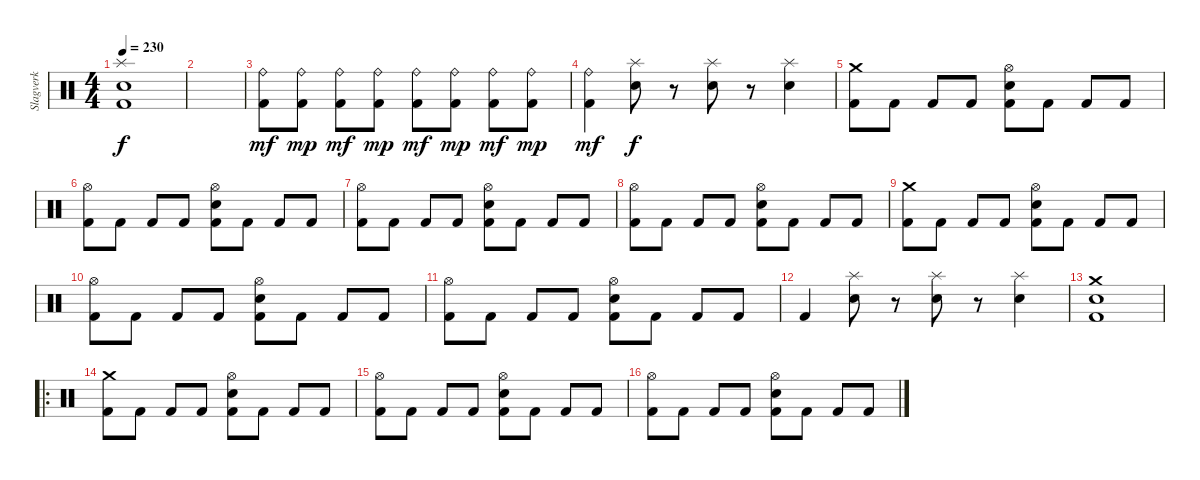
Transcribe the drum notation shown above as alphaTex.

\track ("Slagverk" "Slagverk") {instrument percussion}
\staff {score}
\articulation defaults
\ts (4 4)
\tempo 230
\clef neutral
\ks c
("Snare (hit) 2" "Kick (hit) 2" "Splash (hit)").1{dy f} |
|
("Ride (bell)" "Kick (hit) 2").8{dy mf} ("Ride (bell)" "Kick (hit) 2").8{dy mp} ("Ride (bell)" "Kick (hit) 2").8{dy mf} ("Ride (bell)" "Kick (hit) 2").8{dy mp} ("Ride (bell)" "Kick (hit) 2").8{dy mf} ("Ride (bell)" "Kick (hit) 2").8{dy mp} ("Ride (bell)" "Kick (hit) 2").8{dy mf} ("Ride (bell)" "Kick (hit) 2").8{dy mp} |
("Ride (bell)" "Kick (hit) 2").4{dy mf} ("Snare (hit) 2" "Splash (hit)").8{dy f} r.8 ("Snare (hit) 2" "Splash (hit)").8 r.8 ("Snare (hit) 2" "Splash (hit)").4 |
("Crash medium (hit)" "Kick (hit) 2").8 "Kick (hit) 2".8 "Kick (hit) 2".8 "Kick (hit) 2".8 ("Hi-Hat (open)" "Kick (hit) 2" "Snare (hit) 2").8 "Kick (hit) 2".8 "Kick (hit) 2".8 "Kick (hit) 2".8 |
("Kick (hit) 2" "Hi-Hat (open)").8 "Kick (hit) 2".8 "Kick (hit) 2".8 "Kick (hit) 2".8 ("Hi-Hat (open)" "Kick (hit) 2" "Snare (hit) 2").8 "Kick (hit) 2".8 "Kick (hit) 2".8 "Kick (hit) 2".8 |
("Kick (hit) 2" "Hi-Hat (open)").8 "Kick (hit) 2".8 "Kick (hit) 2".8 "Kick (hit) 2".8 ("Hi-Hat (open)" "Kick (hit) 2" "Snare (hit) 2").8 "Kick (hit) 2".8 "Kick (hit) 2".8 "Kick (hit) 2".8 |
("Kick (hit) 2" "Hi-Hat (open)").8 "Kick (hit) 2".8 "Kick (hit) 2".8 "Kick (hit) 2".8 ("Hi-Hat (open)" "Kick (hit) 2" "Snare (hit) 2").8 "Kick (hit) 2".8 "Kick (hit) 2".8 "Kick (hit) 2".8 |
("Crash medium (hit)" "Kick (hit) 2").8 "Kick (hit) 2".8 "Kick (hit) 2".8 "Kick (hit) 2".8 ("Hi-Hat (open)" "Kick (hit) 2" "Snare (hit) 2").8 "Kick (hit) 2".8 "Kick (hit) 2".8 "Kick (hit) 2".8 |
("Kick (hit) 2" "Hi-Hat (open)").8 "Kick (hit) 2".8 "Kick (hit) 2".8 "Kick (hit) 2".8 ("Hi-Hat (open)" "Kick (hit) 2" "Snare (hit) 2").8 "Kick (hit) 2".8 "Kick (hit) 2".8 "Kick (hit) 2".8 |
("Kick (hit) 2" "Hi-Hat (open)").8 "Kick (hit) 2".8 "Kick (hit) 2".8 "Kick (hit) 2".8 ("Hi-Hat (open)" "Kick (hit) 2" "Snare (hit) 2").8 "Kick (hit) 2".8 "Kick (hit) 2".8 "Kick (hit) 2".8 |
"Kick (hit) 2".4 ("Snare (hit) 2" "Splash (hit)").8 r.8 ("Snare (hit) 2" "Splash (hit)").8 r.8 ("Snare (hit) 2" "Splash (hit)").4 |
("Kick (hit) 2" "Snare (hit) 2" "Crash medium (hit)").1 |
\ro
("Crash medium (hit)" "Kick (hit) 2").8 "Kick (hit) 2".8 "Kick (hit) 2".8 "Kick (hit) 2".8 ("Hi-Hat (open)" "Kick (hit) 2" "Snare (hit) 2").8 "Kick (hit) 2".8 "Kick (hit) 2".8 "Kick (hit) 2".8 |
("Kick (hit) 2" "Hi-Hat (open)").8 "Kick (hit) 2".8 "Kick (hit) 2".8 "Kick (hit) 2".8 ("Hi-Hat (open)" "Kick (hit) 2" "Snare (hit) 2").8 "Kick (hit) 2".8 "Kick (hit) 2".8 "Kick (hit) 2".8 |
("Kick (hit) 2" "Hi-Hat (open)").8 "Kick (hit) 2".8 "Kick (hit) 2".8 "Kick (hit) 2".8 ("Hi-Hat (open)" "Kick (hit) 2" "Snare (hit) 2").8 "Kick (hit) 2".8 "Kick (hit) 2".8 "Kick (hit) 2".8
